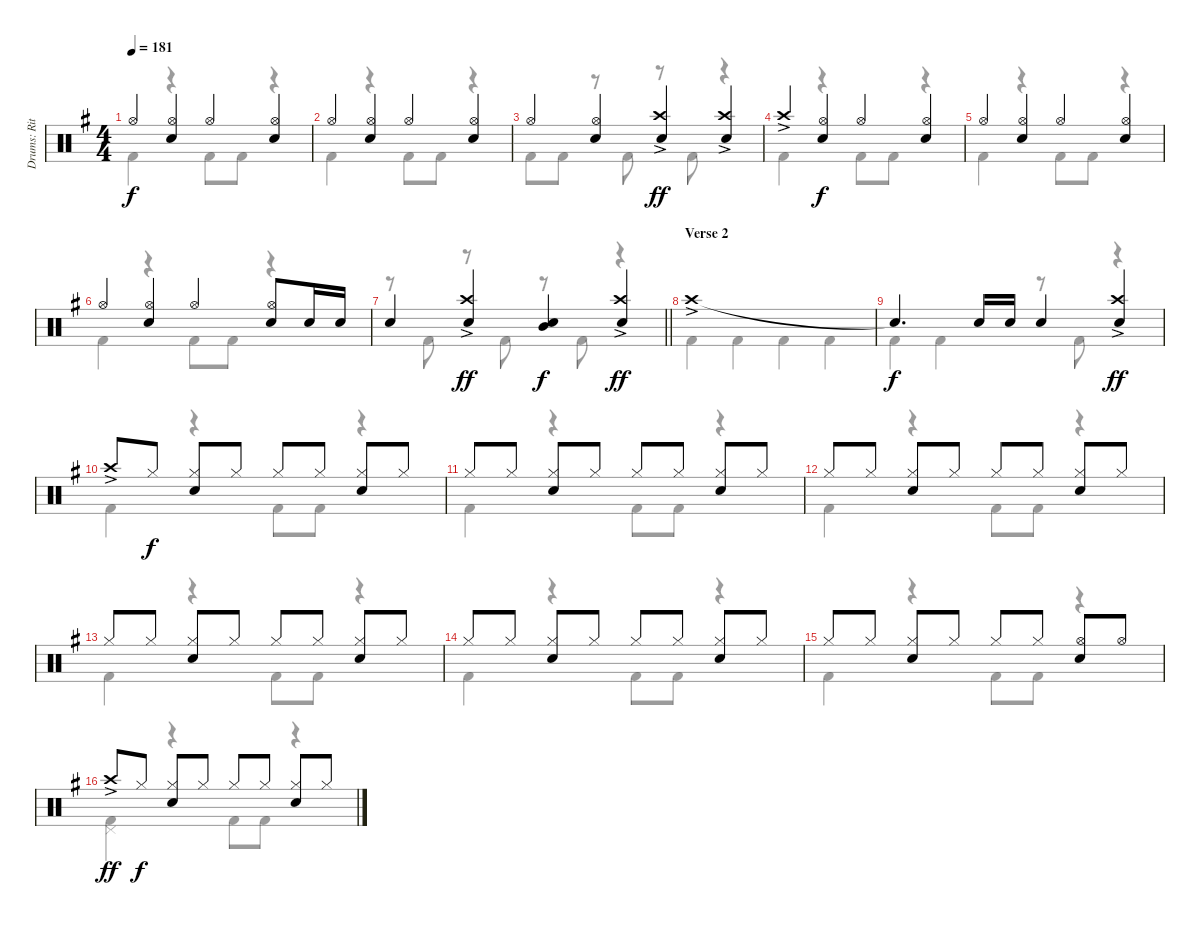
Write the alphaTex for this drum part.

\track ("Drums: Ritsu Tianaka" "Drums: Rit") {instrument percussion}
\staff {score}
\articulation defaults
\voice
\ts (4 4)
\tempo 181
\clef neutral
\ks g "Hi-Hat (open)".4{dy f}
("Hi-Hat (open)" "Snare (hit) 2").4 "Hi-Hat (open)".4 ("Hi-Hat (open)" "Snare (hit) 2").4 |
"Hi-Hat (open)".4 ("Hi-Hat (open)" "Snare (hit) 2").4 "Hi-Hat (open)".4 ("Hi-Hat (open)" "Snare (hit) 2").4 |
"Hi-Hat (open)".4 ("Hi-Hat (open)" "Snare (hit) 2").4 ("Crash high (hit)"{ac} "Snare (hit) 2").4{dy ff} ("Crash high (hit)"{ac} "Snare (hit) 2").4 |
"Crash high (hit)"{ac}.4 ("Hi-Hat (open)" "Snare (hit) 2").4{dy f} "Hi-Hat (open)".4 ("Hi-Hat (open)" "Snare (hit) 2").4 |
"Hi-Hat (open)".4 ("Hi-Hat (open)" "Snare (hit) 2").4 "Hi-Hat (open)".4 ("Hi-Hat (open)" "Snare (hit) 2").4 |
"Hi-Hat (open)".4 ("Hi-Hat (open)" "Snare (hit) 2").4 "Hi-Hat (open)".4 ("Hi-Hat (open)" "Snare (hit) 2").8 "Snare (hit) 2".16 "Snare (hit) 2".16 |
\barLineRight lightlight "Snare (hit) 2".4
("Crash high (hit)"{ac} "Snare (hit) 2").4{dy ff} ("Mid Tom (hit)" "Snare (hit) 2").4{dy f} ("Crash high (hit)"{ac} "Snare (hit) 2").4{dy ff} |
\section ("" "Verse 2")
"Crash high (hit)"{ac}.1 |
"Snare (hit)"{t}.4{d dy f} "Snare (hit) 2".16 "Snare (hit) 2".16 "Snare (hit) 2".4 ("Crash high (hit)"{ac} "Snare (hit) 2").4{dy ff} |
"Crash high (hit)"{ac}.8 "Hi-Hat (closed)".8{dy f} ("Hi-Hat (closed)" "Snare (hit) 2").8 "Hi-Hat (closed)".8 "Hi-Hat (closed)".8 "Hi-Hat (closed)".8 ("Hi-Hat (closed)" "Snare (hit) 2").8 "Hi-Hat (closed)".8 |
"Hi-Hat (closed)".8 "Hi-Hat (closed)".8 ("Hi-Hat (closed)" "Snare (hit) 2").8 "Hi-Hat (closed)".8 "Hi-Hat (closed)".8 "Hi-Hat (closed)".8 ("Hi-Hat (closed)" "Snare (hit) 2").8 "Hi-Hat (closed)".8 |
"Hi-Hat (closed)".8 "Hi-Hat (closed)".8 ("Hi-Hat (closed)" "Snare (hit) 2").8 "Hi-Hat (closed)".8 "Hi-Hat (closed)".8 "Hi-Hat (closed)".8 ("Hi-Hat (closed)" "Snare (hit) 2").8 "Hi-Hat (closed)".8 |
"Hi-Hat (closed)".8 "Hi-Hat (closed)".8 ("Hi-Hat (closed)" "Snare (hit) 2").8 "Hi-Hat (closed)".8 "Hi-Hat (closed)".8 "Hi-Hat (closed)".8 ("Hi-Hat (closed)" "Snare (hit) 2").8 "Hi-Hat (closed)".8 |
"Hi-Hat (closed)".8 "Hi-Hat (closed)".8 ("Hi-Hat (closed)" "Snare (hit) 2").8 "Hi-Hat (closed)".8 "Hi-Hat (closed)".8 "Hi-Hat (closed)".8 ("Hi-Hat (closed)" "Snare (hit) 2").8 "Hi-Hat (closed)".8 |
"Hi-Hat (closed)".8 "Hi-Hat (closed)".8 ("Hi-Hat (closed)" "Snare (hit) 2").8 "Hi-Hat (closed)".8 "Hi-Hat (closed)".8 "Hi-Hat (closed)".8 ("Hi-Hat (open)" "Snare (hit) 2").8 "Hi-Hat (open)".8 |
"Crash high (hit)"{ac}.8{dy ff} "Hi-Hat (closed)".8{dy f} ("Hi-Hat (closed)" "Snare (hit) 2").8 "Hi-Hat (closed)".8 "Hi-Hat (closed)".8 "Hi-Hat (closed)".8 ("Hi-Hat (closed)" "Snare (hit) 2").8 "Hi-Hat (closed)".8
\voice
\clef neutral
\ottava regular
\simile none
\ks g "Kick (hit) 2".4{dy f}
r.4 "Kick (hit) 2".8 "Kick (hit) 2".8 r.4 |
"Kick (hit) 2".4 r.4 "Kick (hit) 2".8 "Kick (hit) 2".8 r.4 |
"Kick (hit) 2".8 "Kick (hit) 2".8 r.8 "Kick (hit) 2".8 r.8 "Kick (hit) 2".8 r.4 |
"Kick (hit) 2".4 r.4 "Kick (hit) 2".8 "Kick (hit) 2".8 r.4 |
"Kick (hit) 2".4 r.4 "Kick (hit) 2".8 "Kick (hit) 2".8 r.4 |
"Kick (hit) 2".4 r.4 "Kick (hit) 2".8 "Kick (hit) 2".8 r.4 |
\barLineRight lightlight
r.8 "Kick (hit) 2".8 r.8 "Kick (hit) 2".8 r.8 "Kick (hit) 2".8 r.4 |
"Kick (hit) 2".4 "Kick (hit) 2".4 "Kick (hit) 2".4 "Kick (hit) 2".4 |
"Kick (hit) 2".4 "Kick (hit) 2".4 r.8 "Kick (hit) 2".8 r.4 |
"Kick (hit) 2".4 r.4 "Kick (hit) 2".8 "Kick (hit) 2".8 r.4 |
"Kick (hit) 2".4 r.4 "Kick (hit) 2".8 "Kick (hit) 2".8 r.4 |
"Kick (hit) 2".4 r.4 "Kick (hit) 2".8 "Kick (hit) 2".8 r.4 |
"Kick (hit) 2".4 r.4 "Kick (hit) 2".8 "Kick (hit) 2".8 r.4 |
"Kick (hit) 2".4 r.4 "Kick (hit) 2".8 "Kick (hit) 2".8 r.4 |
"Kick (hit) 2".4 r.4 "Kick (hit) 2".8 "Kick (hit) 2".8 r.4 |
("Pedal Hi-Hat (hit)" "Kick (hit) 2").4 r.4 "Kick (hit) 2".8 "Kick (hit) 2".8 r.4
